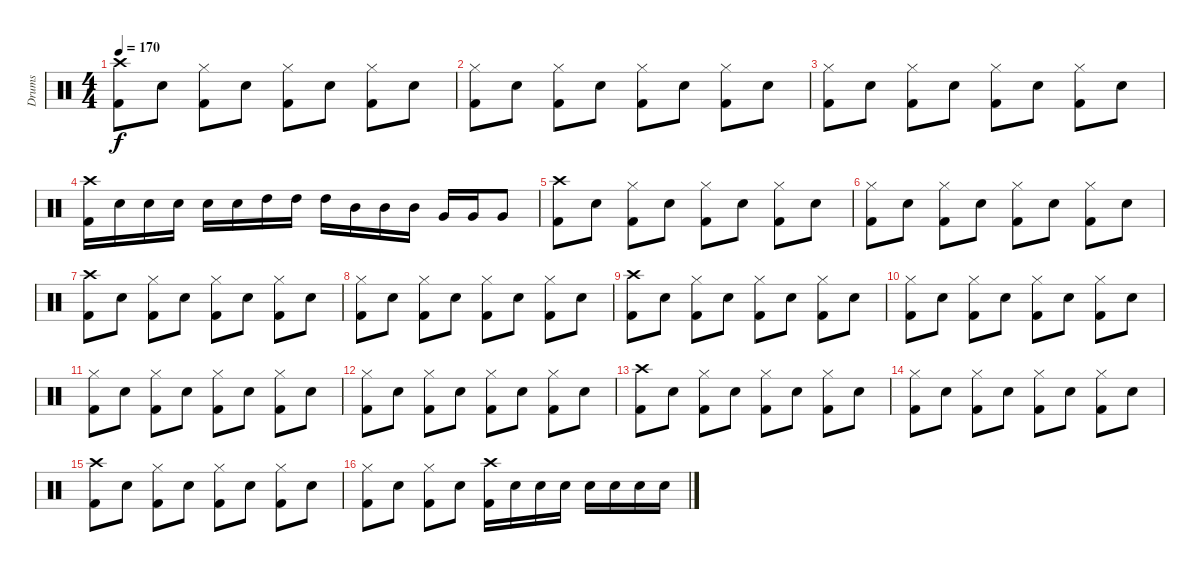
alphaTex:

\track ("Drums" "Drums") {instrument percussion}
\staff {score}
\articulation defaults
\ts (4 4)
\tempo 170
\clef neutral
\ks c
("Crash high (hit)" "Kick (hit) 2").8{dy f} "Electric Snare (hit)".8 ("Hi-Hat (closed)" "Kick (hit) 2").8 "Electric Snare (hit)".8 ("Hi-Hat (closed)" "Kick (hit) 2").8 "Electric Snare (hit)".8 ("Hi-Hat (closed)" "Kick (hit) 2").8 "Electric Snare (hit)".8 |
("Hi-Hat (closed)" "Kick (hit) 2").8 "Electric Snare (hit)".8 ("Hi-Hat (closed)" "Kick (hit) 2").8 "Electric Snare (hit)".8 ("Hi-Hat (closed)" "Kick (hit) 2").8 "Electric Snare (hit)".8 ("Hi-Hat (closed)" "Kick (hit) 2").8 "Electric Snare (hit)".8 |
("Hi-Hat (closed)" "Kick (hit) 2").8 "Electric Snare (hit)".8 ("Hi-Hat (closed)" "Kick (hit) 2").8 "Electric Snare (hit)".8 ("Hi-Hat (closed)" "Kick (hit) 2").8 "Electric Snare (hit)".8 ("Hi-Hat (closed)" "Kick (hit) 2").8 "Electric Snare (hit)".8 |
("Crash high (hit)" "Kick (hit) 2").16 "Electric Snare (hit)".16 "Electric Snare (hit)".16 "Electric Snare (hit)".16 "Electric Snare (hit)".16 "Electric Snare (hit)".16 "High Tom (hit)".16 "High Tom (hit)".16 "High Tom (hit)".16 "Mid Tom (hit)".16 "Mid Tom (hit)".16 "Mid Tom (hit)".16 "Very Low Tom (hit)".16 "Very Low Tom (hit)".16 "Very Low Tom (hit)".8 |
("Crash high (hit)" "Kick (hit) 2").8 "Electric Snare (hit)".8 ("Hi-Hat (closed)" "Kick (hit) 2").8 "Electric Snare (hit)".8 ("Hi-Hat (closed)" "Kick (hit) 2").8 "Electric Snare (hit)".8 ("Hi-Hat (closed)" "Kick (hit) 2").8 "Electric Snare (hit)".8 |
("Hi-Hat (closed)" "Kick (hit) 2").8 "Electric Snare (hit)".8 ("Hi-Hat (closed)" "Kick (hit) 2").8 "Electric Snare (hit)".8 ("Hi-Hat (closed)" "Kick (hit) 2").8 "Electric Snare (hit)".8 ("Hi-Hat (closed)" "Kick (hit) 2").8 "Electric Snare (hit)".8 |
("Crash high (hit)" "Kick (hit) 2").8 "Electric Snare (hit)".8 ("Hi-Hat (closed)" "Kick (hit) 2").8 "Electric Snare (hit)".8 ("Hi-Hat (closed)" "Kick (hit) 2").8 "Electric Snare (hit)".8 ("Hi-Hat (closed)" "Kick (hit) 2").8 "Electric Snare (hit)".8 |
("Hi-Hat (closed)" "Kick (hit) 2").8 "Electric Snare (hit)".8 ("Hi-Hat (closed)" "Kick (hit) 2").8 "Electric Snare (hit)".8 ("Hi-Hat (closed)" "Kick (hit) 2").8 "Electric Snare (hit)".8 ("Hi-Hat (closed)" "Kick (hit) 2").8 "Electric Snare (hit)".8 |
("Crash high (hit)" "Kick (hit) 2").8 "Electric Snare (hit)".8 ("Hi-Hat (closed)" "Kick (hit) 2").8 "Electric Snare (hit)".8 ("Hi-Hat (closed)" "Kick (hit) 2").8 "Electric Snare (hit)".8 ("Hi-Hat (closed)" "Kick (hit) 2").8 "Electric Snare (hit)".8 |
("Hi-Hat (closed)" "Kick (hit) 2").8 "Electric Snare (hit)".8 ("Hi-Hat (closed)" "Kick (hit) 2").8 "Electric Snare (hit)".8 ("Hi-Hat (closed)" "Kick (hit) 2").8 "Electric Snare (hit)".8 ("Hi-Hat (closed)" "Kick (hit) 2").8 "Electric Snare (hit)".8 |
("Hi-Hat (closed)" "Kick (hit) 2").8 "Electric Snare (hit)".8 ("Hi-Hat (closed)" "Kick (hit) 2").8 "Electric Snare (hit)".8 ("Hi-Hat (closed)" "Kick (hit) 2").8 "Electric Snare (hit)".8 ("Hi-Hat (closed)" "Kick (hit) 2").8 "Electric Snare (hit)".8 |
("Hi-Hat (closed)" "Kick (hit) 2").8 "Electric Snare (hit)".8 ("Hi-Hat (closed)" "Kick (hit) 2").8 "Electric Snare (hit)".8 ("Hi-Hat (closed)" "Kick (hit) 2").8 "Electric Snare (hit)".8 ("Hi-Hat (closed)" "Kick (hit) 2").8 "Electric Snare (hit)".8 |
("Crash high (hit)" "Kick (hit) 2").8 "Electric Snare (hit)".8 ("Hi-Hat (closed)" "Kick (hit) 2").8 "Electric Snare (hit)".8 ("Hi-Hat (closed)" "Kick (hit) 2").8 "Electric Snare (hit)".8 ("Hi-Hat (closed)" "Kick (hit) 2").8 "Electric Snare (hit)".8 |
("Hi-Hat (closed)" "Kick (hit) 2").8 "Electric Snare (hit)".8 ("Hi-Hat (closed)" "Kick (hit) 2").8 "Electric Snare (hit)".8 ("Hi-Hat (closed)" "Kick (hit) 2").8 "Electric Snare (hit)".8 ("Hi-Hat (closed)" "Kick (hit) 2").8 "Electric Snare (hit)".8 |
("Crash high (hit)" "Kick (hit) 2").8 "Electric Snare (hit)".8 ("Hi-Hat (closed)" "Kick (hit) 2").8 "Electric Snare (hit)".8 ("Hi-Hat (closed)" "Kick (hit) 2").8 "Electric Snare (hit)".8 ("Hi-Hat (closed)" "Kick (hit) 2").8 "Electric Snare (hit)".8 |
("Hi-Hat (closed)" "Kick (hit) 2").8 "Electric Snare (hit)".8 ("Hi-Hat (closed)" "Kick (hit) 2").8 "Electric Snare (hit)".8 ("Crash high (hit)" "Kick (hit) 2").16 "Electric Snare (hit)".16 "Electric Snare (hit)".16 "Electric Snare (hit)".16 "Electric Snare (hit)".16 "Electric Snare (hit)".16 "Electric Snare (hit)".16 "Electric Snare (hit)".16
